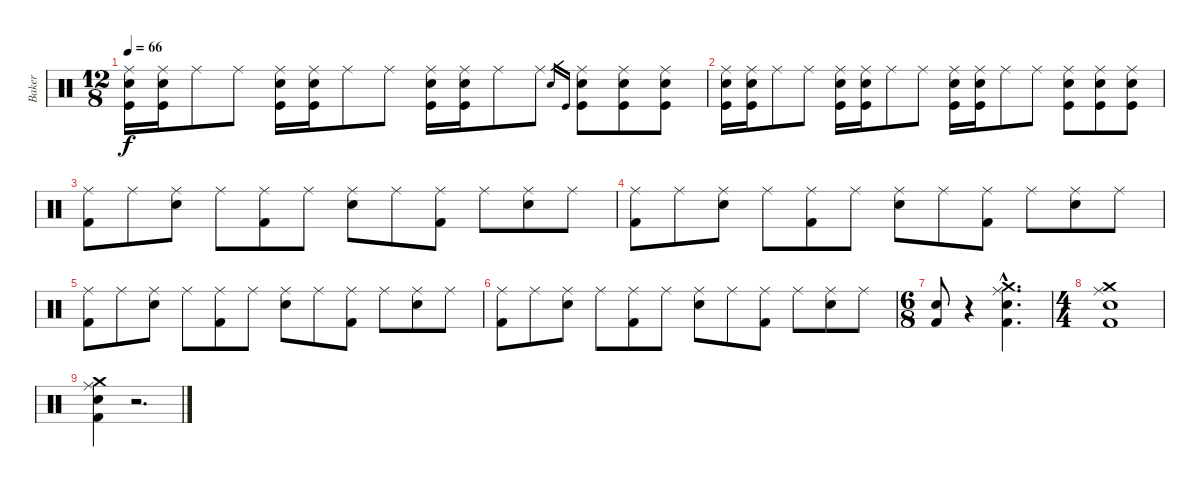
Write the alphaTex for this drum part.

\track ("Baker" "Baker") {instrument percussion}
\staff {score}
\articulation defaults
\ts (12 8)
\tempo 66
\clef neutral
\ks c
("Electric Snare (hit)" "Kick (hit)" "Ride (middle)").16{dy f} ("Electric Snare (hit)" "Kick (hit)" "Ride (middle)").16 "Ride (middle)".8 "Ride (middle)".8 ("Electric Snare (hit)" "Kick (hit)" "Ride (middle)").16 ("Electric Snare (hit)" "Kick (hit)" "Ride (middle)").16 "Ride (middle)".8 "Ride (middle)".8 ("Electric Snare (hit)" "Kick (hit)" "Ride (middle)").16 ("Electric Snare (hit)" "Kick (hit)" "Ride (middle)").16 "Ride (middle)".8 "Ride (middle)".8 "Electric Snare (hit)".16{gr} "Kick (hit)".16{gr} ("Electric Snare (hit)" "Kick (hit)" "Ride (middle)").8 ("Electric Snare (hit)" "Kick (hit)" "Ride (middle)").8 ("Electric Snare (hit)" "Kick (hit)" "Ride (middle)").8 |
("Electric Snare (hit)" "Kick (hit)" "Ride (middle)").16 ("Electric Snare (hit)" "Kick (hit)" "Ride (middle)").16 "Ride (middle)".8 "Ride (middle)".8 ("Electric Snare (hit)" "Kick (hit)" "Ride (middle)").16 ("Electric Snare (hit)" "Kick (hit)" "Ride (middle)").16 "Ride (middle)".8 "Ride (middle)".8 ("Electric Snare (hit)" "Kick (hit)" "Ride (middle)").16 ("Electric Snare (hit)" "Kick (hit)" "Ride (middle)").16 "Ride (middle)".8 "Ride (middle)".8 ("Electric Snare (hit)" "Kick (hit)" "Ride (middle)").8 ("Electric Snare (hit)" "Kick (hit)" "Ride (middle)").8 ("Electric Snare (hit)" "Kick (hit)" "Ride (middle)").8 |
("Kick (hit) 2" "Ride (middle)").8 "Ride (middle)".8 ("Electric Snare (hit)" "Ride (middle)").8 "Ride (middle)".8 ("Kick (hit) 2" "Ride (middle)").8 "Ride (middle)".8 ("Electric Snare (hit)" "Ride (middle)").8 "Ride (middle)".8 ("Kick (hit) 2" "Ride (middle)").8 "Ride (middle)".8 ("Electric Snare (hit)" "Ride (middle)").8 "Ride (middle)".8 |
("Kick (hit) 2" "Ride (middle)").8 "Ride (middle)".8 ("Electric Snare (hit)" "Ride (middle)").8 "Ride (middle)".8 ("Kick (hit) 2" "Ride (middle)").8 "Ride (middle)".8 ("Electric Snare (hit)" "Ride (middle)").8 "Ride (middle)".8 ("Kick (hit) 2" "Ride (middle)").8 "Ride (middle)".8 ("Electric Snare (hit)" "Ride (middle)").8 "Ride (middle)".8 |
("Kick (hit) 2" "Ride (middle)").8 "Ride (middle)".8 ("Electric Snare (hit)" "Ride (middle)").8 "Ride (middle)".8 ("Kick (hit) 2" "Ride (middle)").8 "Ride (middle)".8 ("Electric Snare (hit)" "Ride (middle)").8 "Ride (middle)".8 ("Kick (hit) 2" "Ride (middle)").8 "Ride (middle)".8 ("Electric Snare (hit)" "Ride (middle)").8 "Ride (middle)".8 |
("Kick (hit) 2" "Ride (middle)").8 "Ride (middle)".8 ("Electric Snare (hit)" "Ride (middle)").8 "Ride (middle)".8 ("Kick (hit) 2" "Ride (middle)").8 "Ride (middle)".8 ("Electric Snare (hit)" "Ride (middle)").8 "Ride (middle)".8 ("Kick (hit) 2" "Ride (middle)").8 "Ride (middle)".8 ("Electric Snare (hit)" "Ride (middle)").8 "Ride (middle)".8 |
\ts (6 8)
("Electric Snare (hit)" "Kick (hit) 2").8 r.4 ("Electric Snare (hit)"{hac} "Kick (hit) 2"{hac} "Crash medium (hit)"{hac} "Ride (middle)"{hac}).4{d} |
\ts (4 4)
("Electric Snare (hit)" "Kick (hit) 2" "Crash medium (hit)" "Ride (middle)").1 |
("Electric Snare (hit)" "Kick (hit) 2" "Crash medium (hit)" "Ride (middle)").4 r.2{d}
